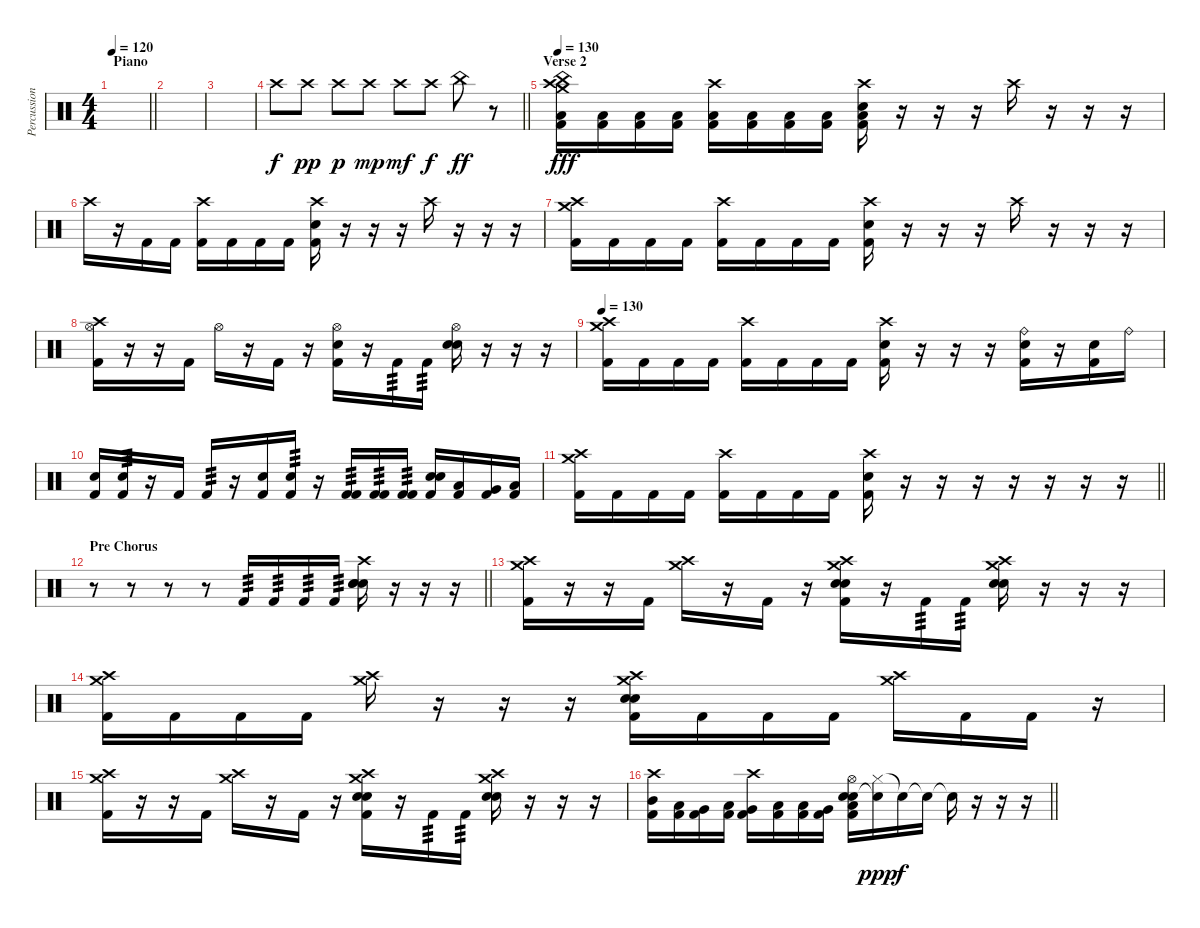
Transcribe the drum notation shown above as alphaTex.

\track ("Percussion" "Percussion") {instrument percussion}
\staff {score}
\articulation defaults
\ts (4 4)
\section ("" "Piano")
\tempo 120
\clef neutral
\barLineRight lightlight
\ks c
|
|
|
\barLineRight lightlight "Crash high (hit)".8 "Crash high (hit)".8{dy pp} "Crash high (hit)".8{dy p} "Crash high (hit)".8{dy mp} "Crash high (hit)".8{dy mf} "Crash high (hit)".8{dy f} "China (hit)".8{dy ff}
r.8 |
\section ("" "Verse 2")
\tempo 130
("Crash medium (hit)" "Crash high (hit)" "China (hit)" "Low Floor Tom (hit)" "Kick (hit) 2").16{dy fff} ("Low Floor Tom (hit)" "Kick (hit) 2").16 ("Low Floor Tom (hit)" "Kick (hit) 2").16 ("Low Floor Tom (hit)" "Kick (hit) 2").16 ("Crash high (hit)" "Low Floor Tom (hit)" "Kick (hit) 2").16 ("Low Floor Tom (hit)" "Kick (hit) 2").16 ("Low Floor Tom (hit)" "Kick (hit) 2").16 ("Low Floor Tom (hit)" "Kick (hit) 2").16 ("Crash high (hit)" "Snare (hit) 2" "Low Floor Tom (hit)" "Kick (hit) 2").16 r.16 r.16 r.16 "Crash high (hit)".16 r.16 r.16 r.16 |
"Crash high (hit)".16 r.16 "Kick (hit) 2".16 "Kick (hit) 2".16 ("Crash high (hit)" "Kick (hit) 2").16 "Kick (hit) 2".16 "Kick (hit) 2".16 "Kick (hit) 2".16 ("Crash high (hit)" "Snare (hit) 2" "Kick (hit) 2").16 r.16 r.16 r.16 "Crash high (hit)".16 r.16 r.16 r.16 |
("Crash medium (hit)" "Crash high (hit)" "Kick (hit) 2").16 "Kick (hit) 2".16 "Kick (hit) 2".16 "Kick (hit) 2".16 ("Crash high (hit)" "Kick (hit) 2").16 "Kick (hit) 2".16 "Kick (hit) 2".16 "Kick (hit) 2".16 ("Crash high (hit)" "Snare (hit) 2" "Kick (hit) 2").16 r.16 r.16 r.16 "Crash high (hit)".16 r.16 r.16 r.16 |
("Crash high (hit)" "Hi-Hat (open)" "Kick (hit) 2").16 r.16 r.16 "Kick (hit) 2".16 "Hi-Hat (open)".16 r.16 "Kick (hit) 2".16 r.16 ("Hi-Hat (open)" "Snare (hit) 2" "Kick (hit) 2").16 r.16 "Kick (hit) 2".16{tp 3} "Kick (hit) 2".16{tp 3} ("Hi-Hat (open)" "Snare (hit) 2" "Electric Snare (hit)").16 r.16 r.16 r.16 |
\tempo 130
("Crash medium (hit)" "Crash high (hit)" "Kick (hit) 2").16 "Kick (hit) 2".16 "Kick (hit) 2".16 "Kick (hit) 2".16 ("Crash high (hit)" "Kick (hit) 2").16 "Kick (hit) 2".16 "Kick (hit) 2".16 "Kick (hit) 2".16 ("Crash high (hit)" "Snare (hit) 2" "Kick (hit) 2").16 r.16 r.16 r.16 ("Ride (bell)" "Snare (hit) 2" "Kick (hit) 2").16 r.16 ("Snare (hit) 2" "Kick (hit) 2").16 "Ride (bell)".16 |
("Snare (hit) 2" "Kick (hit) 2").16 ("Snare (hit) 2" "Kick (hit) 2").16{tp 3} r.16 "Kick (hit) 2".16 "Kick (hit) 2".16{tp 3} r.16 ("Snare (hit) 2" "Kick (hit) 2").16 ("Snare (hit) 2" "Kick (hit) 2").16{tp 3} r.16 ("Kick (hit) 2" "Kick (hit) 2").16{tp 3} ("Kick (hit) 2" "Kick (hit) 2").16{tp 3} ("Kick (hit) 2" "Kick (hit) 2").16{tp 3} ("Snare (hit) 2" "Snare (hit) 2" "Kick (hit) 2").16 ("Kick (hit) 2" "Low Tom (hit)").16 ("Kick (hit) 2" "Very Low Tom (hit)").16 ("Kick (hit) 2" "Low Floor Tom (hit)").16 |
\barLineRight lightlight
("Crash medium (hit)" "Crash high (hit)" "Kick (hit) 2").16 "Kick (hit) 2".16 "Kick (hit) 2".16 "Kick (hit) 2".16 ("Crash high (hit)" "Kick (hit) 2").16 "Kick (hit) 2".16 "Kick (hit) 2".16 "Kick (hit) 2".16 ("Crash high (hit)" "Snare (hit) 2" "Kick (hit) 2").16 r.16 r.16 r.16 r.16 r.16 r.16 r.16 |
\section ("" "Pre Chorus")
\barLineRight lightlight
r.8 r.8 r.8 r.8 "Kick (hit) 2".16{tp 3} "Kick (hit) 2".16{tp 3} "Kick (hit) 2".16{tp 3} "Kick (hit) 2".16{tp 3} ("Crash high (hit)" "Hand Clap (hit)" "Snare (hit) 2" "Electric Snare (hit)").16 r.16 r.16 r.16 |
("Crash medium (hit)" "Crash high (hit)" "Kick (hit) 2").16 r.16 r.16 "Kick (hit) 2".16 ("Crash medium (hit)" "Crash high (hit)").16 r.16 "Kick (hit) 2".16 r.16 ("Crash medium (hit)" "Crash high (hit)" "Snare (hit) 2" "Electric Snare (hit)" "Kick (hit) 2").16 r.16 "Kick (hit) 2".16{tp 3} "Kick (hit) 2".16{tp 3} ("Crash medium (hit)" "Crash high (hit)" "Snare (hit) 2" "Electric Snare (hit)").16 r.16 r.16 r.16 |
("Crash high (hit)" "Crash medium (hit)" "Kick (hit) 2").16 "Kick (hit) 2".16 "Kick (hit) 2".16 "Kick (hit) 2".16 ("Crash high (hit)" "Crash medium (hit)").16 r.16 r.16 r.16 ("Crash high (hit)" "Crash medium (hit)" "Electric Snare (hit)" "Snare (hit) 2" "Kick (hit) 2").16 "Kick (hit) 2".16 "Kick (hit) 2".16 "Kick (hit) 2".16 ("Crash high (hit)" "Crash medium (hit)").16 "Kick (hit) 2".16 "Kick (hit) 2".16 r.16 |
("Crash medium (hit)" "Crash high (hit)" "Kick (hit) 2").16 r.16 r.16 "Kick (hit) 2".16 ("Crash medium (hit)" "Crash high (hit)").16 r.16 "Kick (hit) 2".16 r.16 ("Crash medium (hit)" "Crash high (hit)" "Snare (hit) 2" "Electric Snare (hit)" "Kick (hit) 2").16 r.16 "Kick (hit) 2".16{tp 3} "Kick (hit) 2".16{tp 3} ("Crash medium (hit)" "Crash high (hit)" "Snare (hit) 2" "Electric Snare (hit)").16 r.16 r.16 r.16 |
\barLineRight lightlight
("Crash high (hit)" "Mid Tom (hit)" "Kick (hit) 2").16 ("Low Tom (hit)" "Kick (hit) 2").16 ("Very Low Tom (hit)" "Kick (hit) 2").16 ("Low Tom (hit)" "Kick (hit) 2").16 ("Crash high (hit)" "Very Low Tom (hit)" "Kick (hit) 2").16 ("Low Floor Tom (hit)" "Kick (hit) 2").16 ("Low Tom (hit)" "Kick (hit) 2").16 ("Very Low Tom (hit)" "Kick (hit) 2").16 ("Hi-Hat (open)" "Electric Snare (hit)" "Snare (hit) 2" "Low Floor Tom (hit)" "Kick (hit) 2").16 ("Hi-Hat (closed)" "Snare (hit)"{t}).16{dy ppp} "Snare (hit)"{t}.16{dy f} "Snare (hit)"{t}.16 "Snare (hit)"{t}.16 r.16 r.16 r.16
